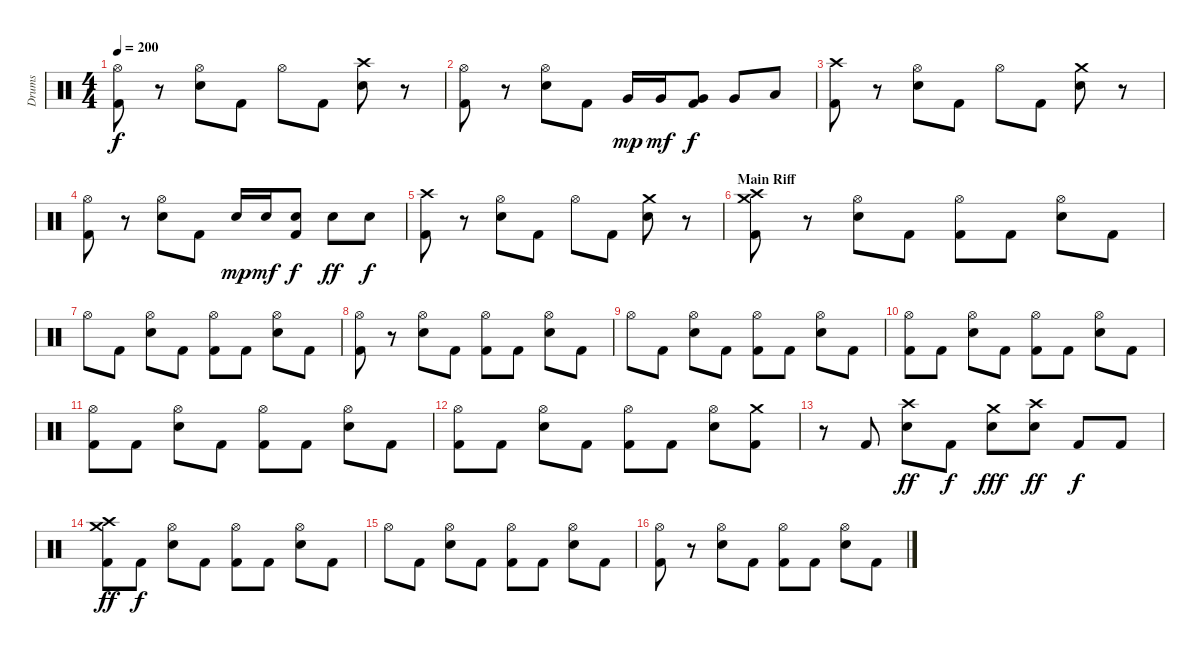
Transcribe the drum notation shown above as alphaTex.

\track ("Drums" "Drums") {instrument percussion}
\staff {score}
\articulation defaults
\ts (4 4)
\tempo 200
\clef neutral
\ks c
("Kick (hit) 2" "Hi-Hat (open)").8{dy f} r.8 ("Electric Snare (hit)" "Hi-Hat (open)").8 "Kick (hit) 2".8 "Hi-Hat (open)".8 "Kick (hit) 2".8 ("Electric Snare (hit)" "Crash high (hit)").8 r.8 |
("Kick (hit) 2" "Hi-Hat (open)").8 r.8 ("Electric Snare (hit)" "Hi-Hat (open)").8 "Kick (hit) 2".8 "Very Low Tom (hit)".16{dy mp} "Very Low Tom (hit)".16{dy mf} ("Kick (hit) 2" "Very Low Tom (hit)").8{dy f} "Very Low Tom (hit)".8 "Low Tom (hit)".8 |
("Kick (hit) 2" "Crash high (hit)").8 r.8 ("Electric Snare (hit)" "Hi-Hat (open)").8 "Kick (hit) 2".8 "Hi-Hat (open)".8 "Kick (hit) 2".8 ("Electric Snare (hit)" "Crash medium (hit)").8 r.8 |
("Kick (hit) 2" "Hi-Hat (open)").8 r.8 ("Electric Snare (hit)" "Hi-Hat (open)").8 "Kick (hit) 2".8 "Electric Snare (hit)".16{dy mp} "Electric Snare (hit)".16{dy mf} ("Kick (hit) 2" "Electric Snare (hit)").8{dy f} "Electric Snare (hit)".8{dy ff} "Electric Snare (hit)".8{dy f} |
("Kick (hit) 2" "Crash high (hit)").8 r.8 ("Electric Snare (hit)" "Hi-Hat (open)").8 "Kick (hit) 2".8 "Hi-Hat (open)".8 "Kick (hit) 2".8 ("Electric Snare (hit)" "Crash medium (hit)").8 r.8 |
\section ("" "Main Riff")
("Kick (hit) 2" "Crash medium (hit)" "Crash high (hit)").8 r.8 ("Electric Snare (hit)" "Hi-Hat (open)").8 "Kick (hit) 2".8 ("Kick (hit) 2" "Hi-Hat (open)").8 "Kick (hit) 2".8 ("Electric Snare (hit)" "Hi-Hat (open)").8 "Kick (hit) 2".8 |
"Hi-Hat (open)".8 "Kick (hit) 2".8 ("Electric Snare (hit)" "Hi-Hat (open)").8 "Kick (hit) 2".8 ("Kick (hit) 2" "Hi-Hat (open)").8 "Kick (hit) 2".8 ("Electric Snare (hit)" "Hi-Hat (open)").8 "Kick (hit) 2".8 |
("Kick (hit) 2" "Hi-Hat (open)").8 r.8 ("Electric Snare (hit)" "Hi-Hat (open)").8 "Kick (hit) 2".8 ("Kick (hit) 2" "Hi-Hat (open)").8 "Kick (hit) 2".8 ("Electric Snare (hit)" "Hi-Hat (open)").8 "Kick (hit) 2".8 |
"Hi-Hat (open)".8 "Kick (hit) 2".8 ("Electric Snare (hit)" "Hi-Hat (open)").8 "Kick (hit) 2".8 ("Kick (hit) 2" "Hi-Hat (open)").8 "Kick (hit) 2".8 ("Electric Snare (hit)" "Hi-Hat (open)").8 "Kick (hit) 2".8 |
("Kick (hit) 2" "Hi-Hat (open)").8 "Kick (hit) 2".8 ("Electric Snare (hit)" "Hi-Hat (open)").8 "Kick (hit) 2".8 ("Kick (hit) 2" "Hi-Hat (open)").8 "Kick (hit) 2".8 ("Electric Snare (hit)" "Hi-Hat (open)").8 "Kick (hit) 2".8 |
("Kick (hit) 2" "Hi-Hat (open)").8 "Kick (hit) 2".8 ("Electric Snare (hit)" "Hi-Hat (open)").8 "Kick (hit) 2".8 ("Kick (hit) 2" "Hi-Hat (open)").8 "Kick (hit) 2".8 ("Electric Snare (hit)" "Hi-Hat (open)").8 "Kick (hit) 2".8 |
("Kick (hit) 2" "Hi-Hat (open)").8 "Kick (hit) 2".8 ("Electric Snare (hit)" "Hi-Hat (open)").8 "Kick (hit) 2".8 ("Kick (hit) 2" "Hi-Hat (open)").8 "Kick (hit) 2".8 ("Electric Snare (hit)" "Hi-Hat (open)").8 ("Kick (hit) 2" "Crash medium (hit)").8 |
r.8 "Kick (hit) 2".8 ("Electric Snare (hit)" "Crash high (hit)").8{dy ff} "Kick (hit) 2".8{dy f} ("Electric Snare (hit)" "Crash medium (hit)").8{dy fff} ("Electric Snare (hit)" "Crash high (hit)").8{dy ff} "Kick (hit) 2".8{dy f} "Kick (hit) 2".8 |
("Kick (hit) 2" "Crash medium (hit)" "Crash high (hit)").8{dy ff} "Kick (hit) 2".8{dy f} ("Electric Snare (hit)" "Hi-Hat (open)").8 "Kick (hit) 2".8 ("Kick (hit) 2" "Hi-Hat (open)").8 "Kick (hit) 2".8 ("Electric Snare (hit)" "Hi-Hat (open)").8 "Kick (hit) 2".8 |
"Hi-Hat (open)".8 "Kick (hit) 2".8 ("Electric Snare (hit)" "Hi-Hat (open)").8 "Kick (hit) 2".8 ("Kick (hit) 2" "Hi-Hat (open)").8 "Kick (hit) 2".8 ("Electric Snare (hit)" "Hi-Hat (open)").8 "Kick (hit) 2".8 |
("Kick (hit) 2" "Hi-Hat (open)").8 r.8 ("Electric Snare (hit)" "Hi-Hat (open)").8 "Kick (hit) 2".8 ("Kick (hit) 2" "Hi-Hat (open)").8 "Kick (hit) 2".8 ("Electric Snare (hit)" "Hi-Hat (open)").8 "Kick (hit) 2".8
